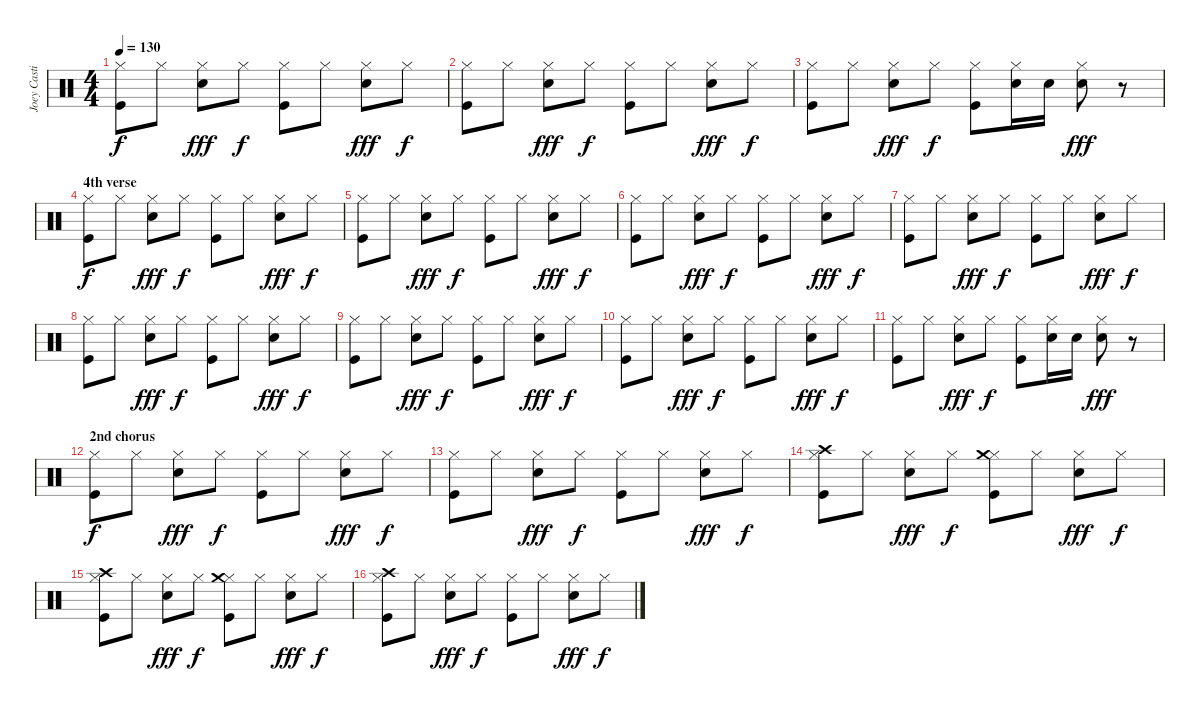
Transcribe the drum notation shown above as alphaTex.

\track ("Joey Castillo - drums" "Joey Casti") {instrument percussion}
\staff {score}
\articulation defaults
\ts (4 4)
\tempo 130
\clef neutral
\ks c
("Hi-Hat (closed)" "Kick (hit)").8{dy f} "Hi-Hat (closed)".8 ("Hi-Hat (closed)" "Electric Snare (hit)").8{dy fff} "Hi-Hat (closed)".8{dy f} ("Hi-Hat (closed)" "Kick (hit)").8 "Hi-Hat (closed)".8 ("Hi-Hat (closed)" "Electric Snare (hit)").8{dy fff} "Hi-Hat (closed)".8{dy f} |
("Hi-Hat (closed)" "Kick (hit)").8 "Hi-Hat (closed)".8 ("Hi-Hat (closed)" "Electric Snare (hit)").8{dy fff} "Hi-Hat (closed)".8{dy f} ("Hi-Hat (closed)" "Kick (hit)").8 "Hi-Hat (closed)".8 ("Hi-Hat (closed)" "Electric Snare (hit)").8{dy fff} "Hi-Hat (closed)".8{dy f} |
("Hi-Hat (closed)" "Kick (hit)").8 "Hi-Hat (closed)".8 ("Hi-Hat (closed)" "Electric Snare (hit)").8{dy fff} "Hi-Hat (closed)".8{dy f} ("Hi-Hat (closed)" "Kick (hit)").8 ("Hi-Hat (closed)" "Electric Snare (hit)").16 "Electric Snare (hit)".16 ("Hi-Hat (closed)" "Electric Snare (hit)").8{dy fff} r.8 |
\section ("" "4th verse")
("Hi-Hat (closed)" "Kick (hit)").8{dy f} "Hi-Hat (closed)".8 ("Hi-Hat (closed)" "Electric Snare (hit)").8{dy fff} "Hi-Hat (closed)".8{dy f} ("Hi-Hat (closed)" "Kick (hit)").8 "Hi-Hat (closed)".8 ("Hi-Hat (closed)" "Electric Snare (hit)").8{dy fff} "Hi-Hat (closed)".8{dy f} |
("Hi-Hat (closed)" "Kick (hit)").8 "Hi-Hat (closed)".8 ("Hi-Hat (closed)" "Electric Snare (hit)").8{dy fff} "Hi-Hat (closed)".8{dy f} ("Hi-Hat (closed)" "Kick (hit)").8 "Hi-Hat (closed)".8 ("Hi-Hat (closed)" "Electric Snare (hit)").8{dy fff} "Hi-Hat (closed)".8{dy f} |
("Hi-Hat (closed)" "Kick (hit)").8 "Hi-Hat (closed)".8 ("Hi-Hat (closed)" "Electric Snare (hit)").8{dy fff} "Hi-Hat (closed)".8{dy f} ("Hi-Hat (closed)" "Kick (hit)").8 "Hi-Hat (closed)".8 ("Hi-Hat (closed)" "Electric Snare (hit)").8{dy fff} "Hi-Hat (closed)".8{dy f} |
("Hi-Hat (closed)" "Kick (hit)").8 "Hi-Hat (closed)".8 ("Hi-Hat (closed)" "Electric Snare (hit)").8{dy fff} "Hi-Hat (closed)".8{dy f} ("Hi-Hat (closed)" "Kick (hit)").8 "Hi-Hat (closed)".8 ("Hi-Hat (closed)" "Electric Snare (hit)").8{dy fff} "Hi-Hat (closed)".8{dy f} |
("Hi-Hat (closed)" "Kick (hit)").8 "Hi-Hat (closed)".8 ("Hi-Hat (closed)" "Electric Snare (hit)").8{dy fff} "Hi-Hat (closed)".8{dy f} ("Hi-Hat (closed)" "Kick (hit)").8 "Hi-Hat (closed)".8 ("Hi-Hat (closed)" "Electric Snare (hit)").8{dy fff} "Hi-Hat (closed)".8{dy f} |
("Hi-Hat (closed)" "Kick (hit)").8 "Hi-Hat (closed)".8 ("Hi-Hat (closed)" "Electric Snare (hit)").8{dy fff} "Hi-Hat (closed)".8{dy f} ("Hi-Hat (closed)" "Kick (hit)").8 "Hi-Hat (closed)".8 ("Hi-Hat (closed)" "Electric Snare (hit)").8{dy fff} "Hi-Hat (closed)".8{dy f} |
("Hi-Hat (closed)" "Kick (hit)").8 "Hi-Hat (closed)".8 ("Hi-Hat (closed)" "Electric Snare (hit)").8{dy fff} "Hi-Hat (closed)".8{dy f} ("Hi-Hat (closed)" "Kick (hit)").8 "Hi-Hat (closed)".8 ("Hi-Hat (closed)" "Electric Snare (hit)").8{dy fff} "Hi-Hat (closed)".8{dy f} |
("Hi-Hat (closed)" "Kick (hit)").8 "Hi-Hat (closed)".8 ("Hi-Hat (closed)" "Electric Snare (hit)").8{dy fff} "Hi-Hat (closed)".8{dy f} ("Hi-Hat (closed)" "Kick (hit)").8 ("Hi-Hat (closed)" "Electric Snare (hit)").16 "Electric Snare (hit)".16 ("Hi-Hat (closed)" "Electric Snare (hit)").8{dy fff} r.8 |
\section ("" "2nd chorus")
("Hi-Hat (closed)" "Kick (hit)").8{dy f} "Hi-Hat (closed)".8 ("Hi-Hat (closed)" "Electric Snare (hit)").8{dy fff} "Hi-Hat (closed)".8{dy f} ("Hi-Hat (closed)" "Kick (hit)").8 "Hi-Hat (closed)".8 ("Hi-Hat (closed)" "Electric Snare (hit)").8{dy fff} "Hi-Hat (closed)".8{dy f} |
("Hi-Hat (closed)" "Kick (hit)").8 "Hi-Hat (closed)".8 ("Hi-Hat (closed)" "Electric Snare (hit)").8{dy fff} "Hi-Hat (closed)".8{dy f} ("Hi-Hat (closed)" "Kick (hit)").8 "Hi-Hat (closed)".8 ("Hi-Hat (closed)" "Electric Snare (hit)").8{dy fff} "Hi-Hat (closed)".8{dy f} |
("Hi-Hat (closed)" "Kick (hit)" "Crash high (hit)").8 "Hi-Hat (closed)".8 ("Hi-Hat (closed)" "Electric Snare (hit)").8{dy fff} "Hi-Hat (closed)".8{dy f} ("Hi-Hat (closed)" "Kick (hit)" "Crash medium (hit)").8 "Hi-Hat (closed)".8 ("Hi-Hat (closed)" "Electric Snare (hit)").8{dy fff} "Hi-Hat (closed)".8{dy f} |
("Hi-Hat (closed)" "Kick (hit)" "Crash high (hit)").8 "Hi-Hat (closed)".8 ("Hi-Hat (closed)" "Electric Snare (hit)").8{dy fff} "Hi-Hat (closed)".8{dy f} ("Hi-Hat (closed)" "Kick (hit)" "Crash medium (hit)").8 "Hi-Hat (closed)".8 ("Hi-Hat (closed)" "Electric Snare (hit)").8{dy fff} "Hi-Hat (closed)".8{dy f} |
("Hi-Hat (closed)" "Kick (hit)" "Crash high (hit)").8 "Hi-Hat (closed)".8 ("Hi-Hat (closed)" "Electric Snare (hit)").8{dy fff} "Hi-Hat (closed)".8{dy f} ("Hi-Hat (closed)" "Kick (hit)").8 "Hi-Hat (closed)".8 ("Hi-Hat (closed)" "Electric Snare (hit)").8{dy fff} "Hi-Hat (closed)".8{dy f}
